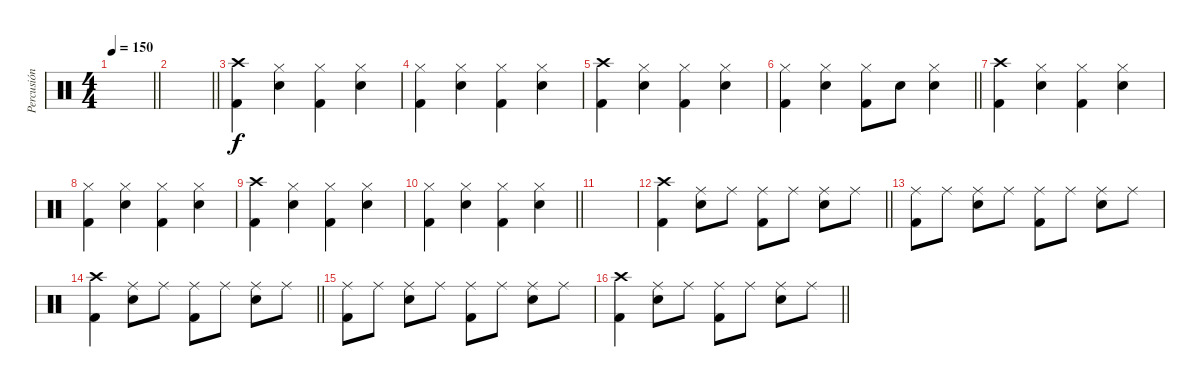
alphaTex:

\track ("Percusión" "Percusión") {instrument percussion}
\staff {score}
\articulation defaults
\ts (4 4)
\tempo 150
\clef neutral
\barLineRight lightlight
\ks c
|
\barLineRight lightlight
|
("Crash high (hit)" "Kick (hit) 2").4 ("Hi-Hat (closed)" "Snare (hit) 2").4 ("Hi-Hat (closed)" "Kick (hit) 2").4 ("Hi-Hat (closed)" "Snare (hit) 2").4 |
("Hi-Hat (closed)" "Kick (hit) 2").4 ("Hi-Hat (closed)" "Snare (hit) 2").4 ("Hi-Hat (closed)" "Kick (hit) 2").4 ("Hi-Hat (closed)" "Snare (hit) 2").4 |
("Crash high (hit)" "Kick (hit) 2").4 ("Hi-Hat (closed)" "Snare (hit) 2").4 ("Hi-Hat (closed)" "Kick (hit) 2").4 ("Hi-Hat (closed)" "Snare (hit) 2").4 |
\barLineRight lightlight
("Hi-Hat (closed)" "Kick (hit) 2").4 ("Hi-Hat (closed)" "Snare (hit) 2").4 ("Hi-Hat (closed)" "Kick (hit) 2").8 "Snare (hit) 2".8 ("Hi-Hat (closed)" "Snare (hit) 2").4 |
("Crash high (hit)" "Kick (hit) 2").4 ("Hi-Hat (closed)" "Snare (hit) 2").4 ("Hi-Hat (closed)" "Kick (hit) 2").4 ("Hi-Hat (closed)" "Snare (hit) 2").4 |
("Hi-Hat (closed)" "Kick (hit) 2").4 ("Hi-Hat (closed)" "Snare (hit) 2").4 ("Hi-Hat (closed)" "Kick (hit) 2").4 ("Hi-Hat (closed)" "Snare (hit) 2").4 |
("Crash high (hit)" "Kick (hit) 2").4 ("Hi-Hat (closed)" "Snare (hit) 2").4 ("Hi-Hat (closed)" "Kick (hit) 2").4 ("Hi-Hat (closed)" "Snare (hit) 2").4 |
\barLineRight lightlight
("Hi-Hat (closed)" "Kick (hit) 2").4 ("Hi-Hat (closed)" "Snare (hit) 2").4 ("Hi-Hat (closed)" "Kick (hit) 2").4 ("Hi-Hat (closed)" "Snare (hit) 2").4 |
|
\barLineRight lightlight
("Crash high (hit)" "Kick (hit) 2").4 ("Ride (middle)" "Snare (hit) 2").8 "Ride (middle)".8 ("Ride (middle)" "Kick (hit) 2").8 "Ride (middle)".8 ("Ride (middle)" "Snare (hit) 2").8 "Ride (middle)".8 |
("Ride (middle)" "Kick (hit) 2").8 "Ride (middle)".8 ("Ride (middle)" "Snare (hit) 2").8 "Ride (middle)".8 ("Ride (middle)" "Kick (hit) 2").8 "Ride (middle)".8 ("Ride (middle)" "Snare (hit) 2").8 "Ride (middle)".8 |
\barLineRight lightlight
("Crash high (hit)" "Kick (hit) 2").4 ("Ride (middle)" "Snare (hit) 2").8 "Ride (middle)".8 ("Ride (middle)" "Kick (hit) 2").8 "Ride (middle)".8 ("Ride (middle)" "Snare (hit) 2").8 "Ride (middle)".8 |
("Ride (middle)" "Kick (hit) 2").8 "Ride (middle)".8 ("Ride (middle)" "Snare (hit) 2").8 "Ride (middle)".8 ("Ride (middle)" "Kick (hit) 2").8 "Ride (middle)".8 ("Ride (middle)" "Snare (hit) 2").8 "Ride (middle)".8 |
\barLineRight lightlight
("Crash high (hit)" "Kick (hit) 2").4 ("Ride (middle)" "Snare (hit) 2").8 "Ride (middle)".8 ("Ride (middle)" "Kick (hit) 2").8 "Ride (middle)".8 ("Ride (middle)" "Snare (hit) 2").8 "Ride (middle)".8
